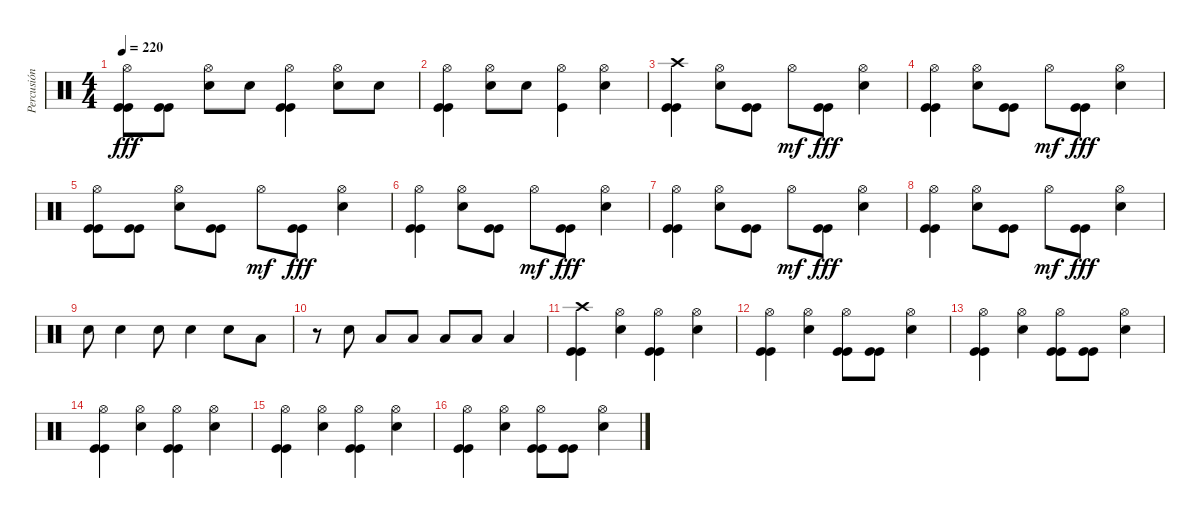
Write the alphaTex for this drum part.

\track ("Percusión" "Percusión") {instrument percussion}
\staff {score}
\articulation defaults
\ts (4 4)
\tempo 220
\clef neutral
\ks c
("Hi-Hat (open)" "Kick (hit)" "Kick (hit)").8{dy fff} ("Kick (hit)" "Kick (hit)").8 ("Hi-Hat (open)" "Snare (hit) 2").8 "Snare (hit) 2".8 ("Hi-Hat (open)" "Kick (hit)" "Kick (hit)").4 ("Hi-Hat (open)" "Snare (hit) 2").8 "Snare (hit) 2".8 |
("Hi-Hat (open)" "Kick (hit)" "Kick (hit)").4 ("Hi-Hat (open)" "Snare (hit) 2").8 "Snare (hit) 2".8 ("Hi-Hat (open)" "Kick (hit)").4 ("Hi-Hat (open)" "Snare (hit) 2").4 |
("Crash high (hit)" "Kick (hit)" "Kick (hit)").4 ("Hi-Hat (open)" "Snare (hit) 2").8 ("Kick (hit)" "Kick (hit)").8 "Hi-Hat (open)".8{dy mf} ("Kick (hit)" "Kick (hit)").8{dy fff} ("Hi-Hat (open)" "Snare (hit) 2").4 |
("Hi-Hat (open)" "Kick (hit)" "Kick (hit)").4 ("Hi-Hat (open)" "Snare (hit) 2").8 ("Kick (hit)" "Kick (hit)").8 "Hi-Hat (open)".8{dy mf} ("Kick (hit)" "Kick (hit)").8{dy fff} ("Hi-Hat (open)" "Snare (hit) 2").4 |
("Hi-Hat (open)" "Kick (hit)" "Kick (hit)").8 ("Kick (hit)" "Kick (hit)").8 ("Hi-Hat (open)" "Snare (hit) 2").8 ("Kick (hit)" "Kick (hit)").8 "Hi-Hat (open)".8{dy mf} ("Kick (hit)" "Kick (hit)").8{dy fff} ("Hi-Hat (open)" "Snare (hit) 2").4 |
("Hi-Hat (open)" "Kick (hit)" "Kick (hit)").4 ("Hi-Hat (open)" "Snare (hit) 2").8 ("Kick (hit)" "Kick (hit)").8 "Hi-Hat (open)".8{dy mf} ("Kick (hit)" "Kick (hit)").8{dy fff} ("Hi-Hat (open)" "Snare (hit) 2").4 |
("Hi-Hat (open)" "Kick (hit)" "Kick (hit)").4 ("Hi-Hat (open)" "Snare (hit) 2").8 ("Kick (hit)" "Kick (hit)").8 "Hi-Hat (open)".8{dy mf} ("Kick (hit)" "Kick (hit)").8{dy fff} ("Hi-Hat (open)" "Snare (hit) 2").4 |
("Hi-Hat (open)" "Kick (hit)" "Kick (hit)").4 ("Hi-Hat (open)" "Snare (hit) 2").8 ("Kick (hit)" "Kick (hit)").8 "Hi-Hat (open)".8{dy mf} ("Kick (hit)" "Kick (hit)").8{dy fff} ("Hi-Hat (open)" "Snare (hit) 2").4 |
"Snare (hit) 2".8 "Snare (hit) 2".4 "Snare (hit) 2".8 "Snare (hit) 2".4 "Snare (hit) 2".8 "Low Tom (hit)".8 |
r.8 "Snare (hit) 2".8 "Low Tom (hit)".8 "Low Tom (hit)".8 "Low Tom (hit)".8 "Low Tom (hit)".8 "Low Tom (hit)".4 |
("Crash high (hit)" "Kick (hit)" "Kick (hit)").4 ("Hi-Hat (open)" "Snare (hit) 2").4 ("Hi-Hat (open)" "Kick (hit)" "Kick (hit)").4 ("Hi-Hat (open)" "Snare (hit) 2").4 |
("Hi-Hat (open)" "Kick (hit)" "Kick (hit)").4 ("Hi-Hat (open)" "Snare (hit) 2").4 ("Hi-Hat (open)" "Kick (hit)" "Kick (hit)").8 ("Kick (hit)" "Kick (hit)").8 ("Hi-Hat (open)" "Snare (hit) 2").4 |
("Hi-Hat (open)" "Kick (hit)" "Kick (hit)").4 ("Hi-Hat (open)" "Snare (hit) 2").4 ("Hi-Hat (open)" "Kick (hit)" "Kick (hit)").8 ("Kick (hit)" "Kick (hit)").8 ("Hi-Hat (open)" "Snare (hit) 2").4 |
("Hi-Hat (open)" "Kick (hit)" "Kick (hit)").4 ("Hi-Hat (open)" "Snare (hit) 2").4 ("Hi-Hat (open)" "Kick (hit)" "Kick (hit)").4 ("Hi-Hat (open)" "Snare (hit) 2").4 |
("Hi-Hat (open)" "Kick (hit)" "Kick (hit)").4 ("Hi-Hat (open)" "Snare (hit) 2").4 ("Hi-Hat (open)" "Kick (hit)" "Kick (hit)").4 ("Hi-Hat (open)" "Snare (hit) 2").4 |
("Hi-Hat (open)" "Kick (hit)" "Kick (hit)").4 ("Hi-Hat (open)" "Snare (hit) 2").4 ("Hi-Hat (open)" "Kick (hit)" "Kick (hit)").8 ("Kick (hit)" "Kick (hit)").8 ("Hi-Hat (open)" "Snare (hit) 2").4
